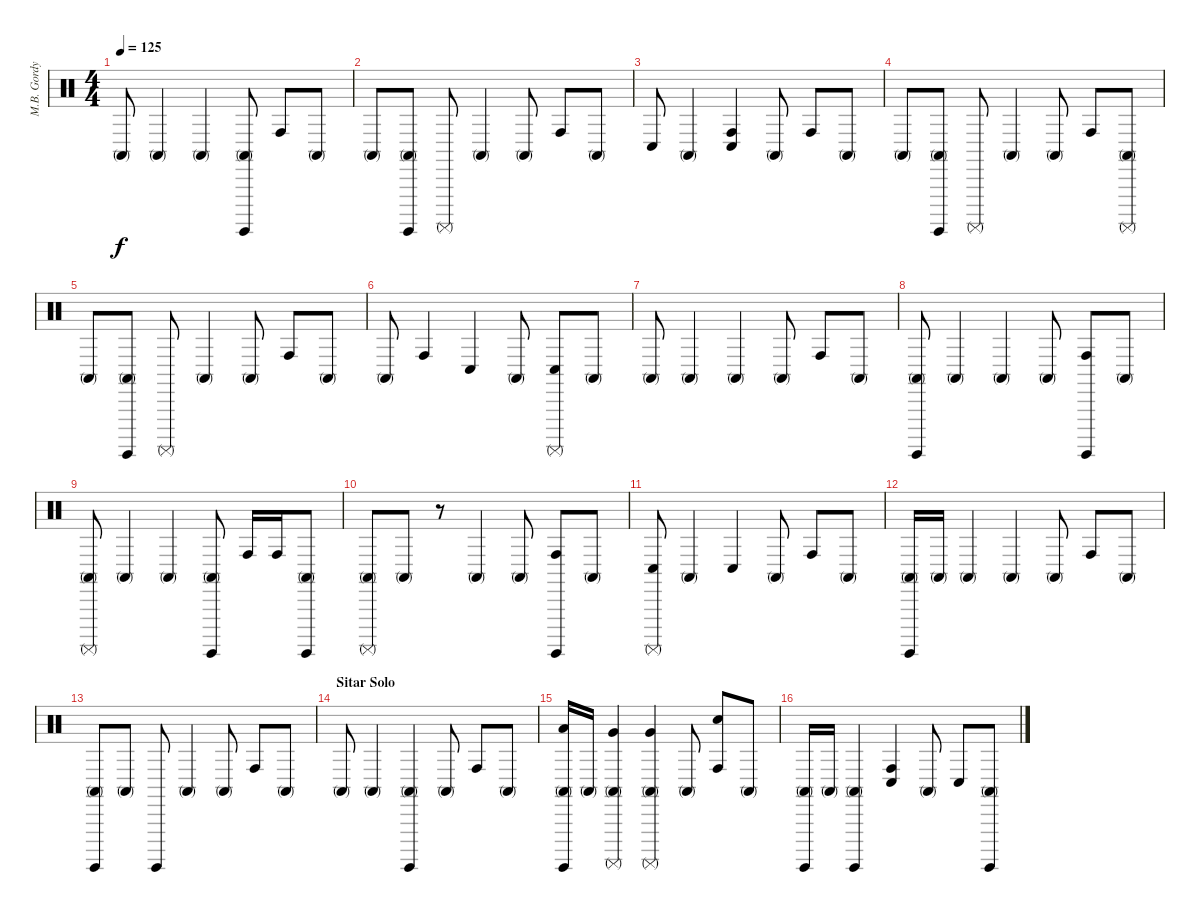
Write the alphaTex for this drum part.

\track ("M.B. Gordy [Percüsion]" "M.B. Gordy") {instrument percussion}
\staff {score}
\articulation defaults
\ts (4 4)
\tempo 125
\clef neutral
\ks c "Conga high (mute)".8{dy f} "Conga high (mute)".4 "Conga high (mute)".4
("Surdo (hit)" "Conga high (mute)").8 "Conga high (hit)".8 "Conga high (mute)".8 |
"Conga high (mute)".8 ("Surdo (hit)" "Conga high (mute)").8 "Surdo (mute)".8 "Conga high (mute)".4 "Conga high (mute)".8 "Conga high (hit)".8 "Conga high (mute)".8 |
"Conga low (hit)".8 "Conga high (mute)".4 ("Conga low (hit)" "Conga high (hit)").4 "Conga high (mute)".8 "Conga high (hit)".8 "Conga high (mute)".8 |
"Conga high (mute)".8 ("Surdo (hit)" "Conga high (mute)").8 "Surdo (mute)".8 "Conga high (mute)".4 "Conga high (mute)".8 "Conga high (hit)".8 ("Surdo (mute)" "Conga high (mute)").8 |
"Conga high (mute)".8 ("Surdo (hit)" "Conga high (mute)").8 "Surdo (mute)".8 "Conga high (mute)".4 "Conga high (mute)".8 "Conga high (hit)".8 "Conga high (mute)".8 |
"Conga high (mute)".8 "Conga high (hit)".4 "Conga low (hit)".4 "Conga high (mute)".8 ("Surdo (mute)" "Conga low (hit)").8 "Conga high (mute)".8 |
"Conga high (mute)".8 "Conga high (mute)".4 "Conga high (mute)".4 "Conga high (mute)".8 "Conga high (hit)".8 "Conga high (mute)".8 |
("Surdo (hit)" "Conga high (mute)").8 "Conga high (mute)".4 "Conga high (mute)".4 "Conga high (mute)".8 ("Surdo (hit)" "Conga high (hit)").8 "Conga high (mute)".8 |
("Surdo (mute)" "Conga high (mute)").8 "Conga high (mute)".4 "Conga high (mute)".4 ("Surdo (hit)" "Conga high (mute)").8 "Conga high (hit)".16 "Conga high (hit)".16 ("Surdo (hit)" "Conga high (mute)").8 |
("Surdo (mute)" "Conga high (mute)").8 "Conga high (mute)".8 r.8 "Conga high (mute)".4 "Conga high (mute)".8 ("Surdo (hit)" "Conga high (hit)").8 "Conga high (mute)".8 |
("Surdo (mute)" "Conga low (hit)").8 "Conga high (mute)".4 "Conga low (hit)".4 "Conga high (mute)".8 "Conga high (hit)".8 "Conga high (mute)".8 |
("Surdo (hit)" "Conga high (mute)").16 "Conga high (mute)".16 "Conga high (mute)".4 "Conga high (mute)".4 "Conga high (mute)".8 "Conga high (hit)".8 "Conga high (mute)".8 |
("Surdo (hit)" "Conga high (mute)").8 "Conga high (mute)".8 "Surdo (hit)".8 "Conga high (mute)".4 "Conga high (mute)".8 "Conga high (hit)".8 "Conga high (mute)".8 |
\section ("" "Sitar Solo")
"Conga high (mute)".8 "Conga high (mute)".4 ("Surdo (hit)" "Conga high (mute)").4 "Conga high (mute)".8 "Conga high (hit)".8 "Conga high (mute)".8 |
("Surdo (hit)" "Conga high (mute)" "Low Floor Tom (hit)").16 "Conga high (mute)".16 ("Surdo (mute)" "Conga high (mute)" "Very Low Tom (hit)").4 ("Surdo (mute)" "Conga high (mute)" "Very Low Tom (hit)").4 "Conga high (mute)".8 ("Hand Clap (hit)" "Conga high (hit)").8 "Conga high (mute)".8 |
("Surdo (hit)" "Conga high (mute)").16 "Conga high (mute)".16 ("Surdo (hit)" "Conga high (mute)").4 ("Conga low (hit)" "Conga high (hit)").4 "Conga high (mute)".8 "Conga low (hit)".8 ("Surdo (hit)" "Conga high (mute)").8
